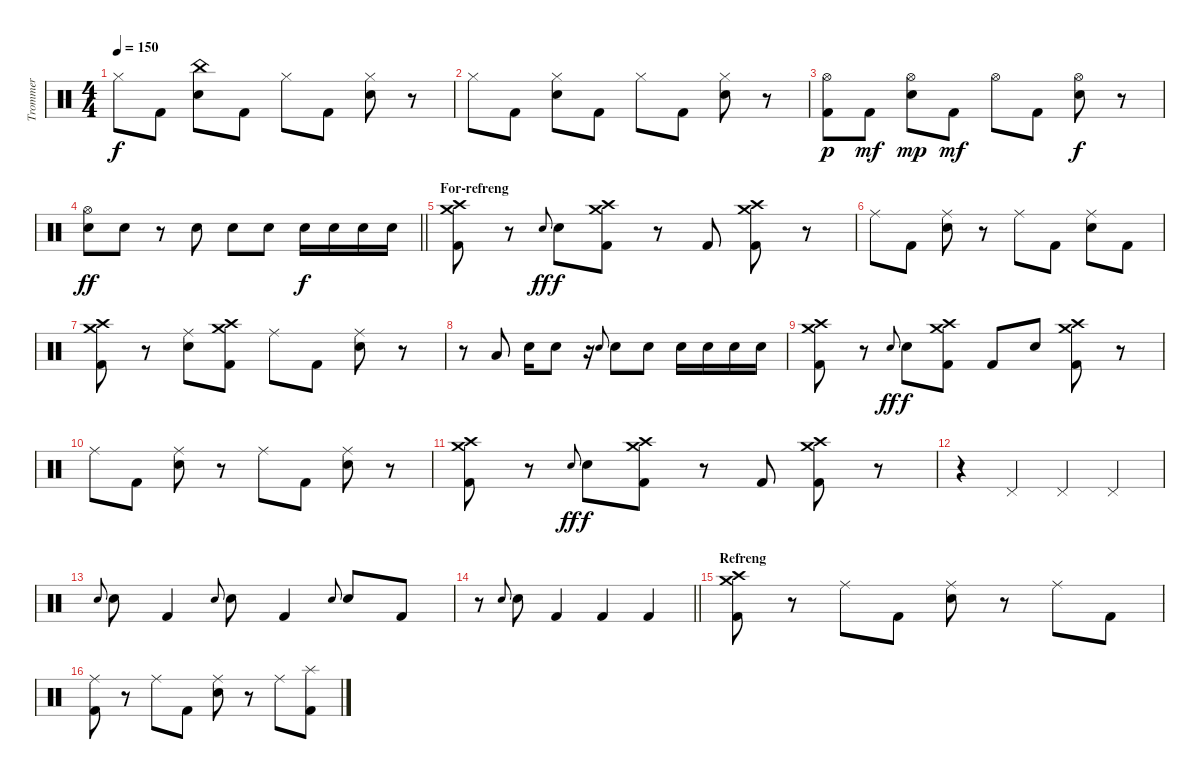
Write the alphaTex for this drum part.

\track ("Trommer" "Trommer") {instrument percussion}
\staff {score}
\articulation defaults
\ts (4 4)
\tempo 150
\clef neutral
\ks c "Hi-Hat (closed)".8{dy f} "Kick (hit) 2".8
("China (hit)" "Electric Snare (hit)").8 "Kick (hit) 2".8 "Hi-Hat (closed)".8 "Kick (hit) 2".8 ("Hi-Hat (closed)" "Electric Snare (hit)").8 r.8 |
"Hi-Hat (closed)".8 "Kick (hit) 2".8 ("Hi-Hat (closed)" "Electric Snare (hit)").8 "Kick (hit) 2".8 "Hi-Hat (closed)".8 "Kick (hit) 2".8 ("Hi-Hat (closed)" "Electric Snare (hit)").8 r.8 |
("Hi-Hat (open)" "Kick (hit) 2").8{dy p} "Kick (hit) 2".8{dy mf} ("Hi-Hat (open)" "Electric Snare (hit)").8{dy mp} "Kick (hit) 2".8{dy mf} "Hi-Hat (open)".8 "Kick (hit) 2".8 ("Hi-Hat (open)" "Electric Snare (hit)").8{dy f} r.8 |
\barLineRight lightlight
("Hi-Hat (open)" "Electric Snare (hit)").8{dy ff} "Electric Snare (hit)".8 r.8 "Electric Snare (hit)".8 "Electric Snare (hit)".8 "Electric Snare (hit)".8 "Electric Snare (hit)".16{dy f} "Electric Snare (hit)".16 "Electric Snare (hit)".16 "Electric Snare (hit)".16 |
\section ("" "For-refreng")
("Crash medium (hit)" "Crash high (hit)" "Kick (hit) 2").8 r.8 "Electric Snare (hit)".8{gr onbeat dy ff} "Electric Snare (hit)".8{dy f} ("Crash medium (hit)" "Crash high (hit)" "Kick (hit) 2").8 r.8 "Kick (hit) 2".8 ("Crash medium (hit)" "Crash high (hit)" "Kick (hit) 2").8 r.8 |
"Ride (middle)".8 "Kick (hit) 2".8 ("Ride (middle)" "Electric Snare (hit)").8 r.8 "Ride (middle)".8 "Kick (hit) 2".8 ("Ride (middle)" "Electric Snare (hit)").8 "Kick (hit) 2".8 |
("Crash medium (hit)" "Crash high (hit)" "Kick (hit) 2").8 r.8 ("Ride (middle)" "Electric Snare (hit)").8 ("Crash medium (hit)" "Crash high (hit)" "Kick (hit) 2").8 "Ride (middle)".8 "Kick (hit) 2".8 ("Ride (middle)" "Electric Snare (hit)").8 r.8 |
r.8 "Low Tom (hit)".8 "Electric Snare (hit)".16 "Electric Snare (hit)".8 r.16 "Electric Snare (hit)".8{gr onbeat} "Electric Snare (hit)".8 "Electric Snare (hit)".8 "Electric Snare (hit)".16 "Electric Snare (hit)".16 "Electric Snare (hit)".16 "Electric Snare (hit)".16 |
("Crash medium (hit)" "Crash high (hit)" "Kick (hit) 2").8 r.8 "Electric Snare (hit)".8{gr onbeat dy ff} "Electric Snare (hit)".8{dy f} ("Crash medium (hit)" "Crash high (hit)" "Kick (hit) 2").8 "Kick (hit) 2".8 "Electric Snare (hit)".8 ("Crash medium (hit)" "Crash high (hit)" "Kick (hit) 2").8 r.8 |
"Ride (middle)".8 "Kick (hit) 2".8 ("Ride (middle)" "Electric Snare (hit)").8 r.8 "Ride (middle)".8 "Kick (hit) 2".8 ("Ride (middle)" "Electric Snare (hit)").8 r.8 |
("Crash medium (hit)" "Crash high (hit)" "Kick (hit) 2").8 r.8 "Electric Snare (hit)".8{gr onbeat dy ff} "Electric Snare (hit)".8{dy f} ("Crash medium (hit)" "Crash high (hit)" "Kick (hit) 2").8 r.8 "Kick (hit) 2".8 ("Crash medium (hit)" "Crash high (hit)" "Kick (hit) 2").8 r.8 |
r.4 "Pedal Hi-Hat (hit)".4 "Pedal Hi-Hat (hit)".4 "Pedal Hi-Hat (hit)".4 |
"Electric Snare (hit)".8{gr onbeat} "Electric Snare (hit)".8 "Kick (hit) 2".4 "Electric Snare (hit)".8{gr onbeat} "Electric Snare (hit)".8 "Kick (hit) 2".4 "Electric Snare (hit)".8{gr onbeat} "Electric Snare (hit)".8 "Kick (hit) 2".8 |
\barLineRight lightlight
r.8 "Electric Snare (hit)".8{gr onbeat} "Electric Snare (hit)".8 "Kick (hit) 2".4 "Kick (hit) 2".4 "Kick (hit) 2".4 |
\section ("" "Refreng")
("Crash high (hit)" "Crash medium (hit)" "Kick (hit) 2").8 r.8 "Ride (middle)".8 "Kick (hit) 2".8 ("Ride (middle)" "Electric Snare (hit)").8 r.8 "Ride (middle)".8 "Kick (hit) 2".8 |
("Ride (middle)" "Kick (hit) 2").8 r.8 "Ride (middle)".8 "Kick (hit) 2".8 ("Ride (middle)" "Electric Snare (hit)").8 r.8 "Ride (middle)".8 ("Splash (hit)" "Kick (hit) 2").8
